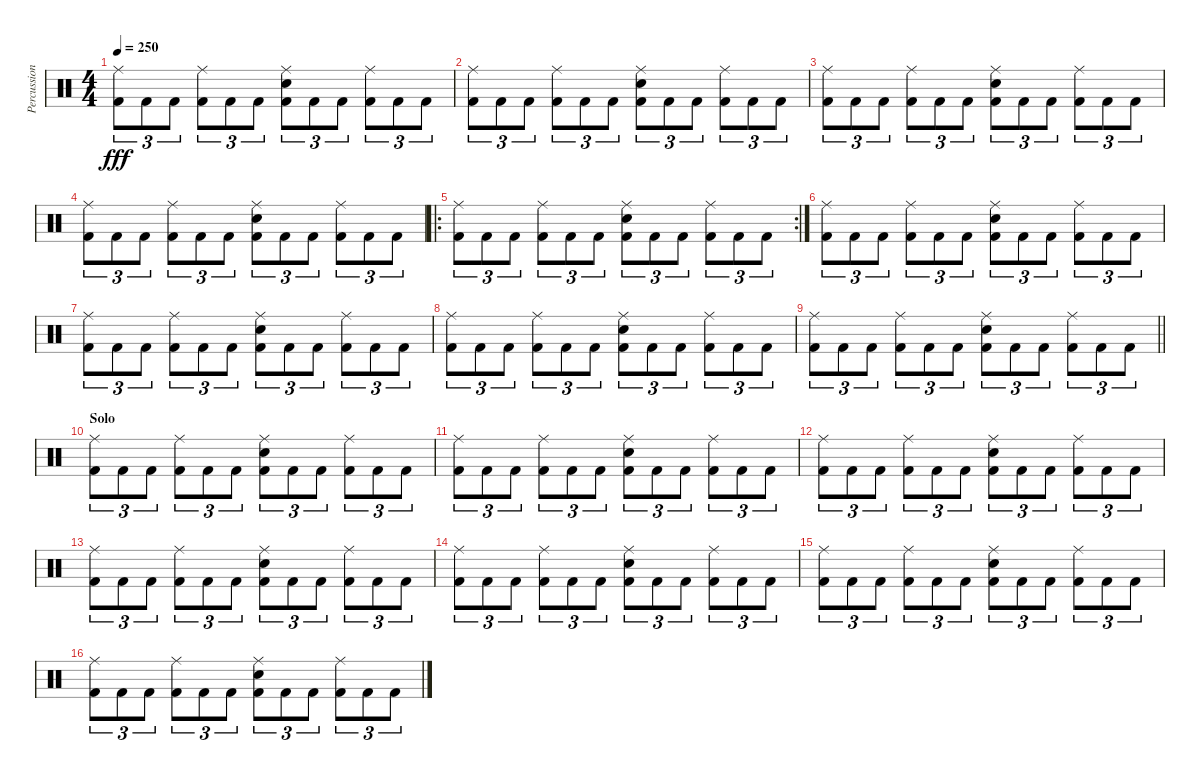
\track ("Percussion" "Percussion") {instrument percussion}
\staff {score}
\articulation defaults
\ts (4 4)
\tempo 250
\clef neutral
\ks c
("Ride (middle)" "Kick (hit) 2").8{tu (3 2) dy fff} "Kick (hit) 2".8{tu (3 2)} "Kick (hit) 2".8{tu (3 2)} ("Ride (middle)" "Kick (hit) 2").8{tu (3 2)} "Kick (hit) 2".8{tu (3 2)} "Kick (hit) 2".8{tu (3 2)} ("Ride (middle)" "Electric Snare (hit)" "Kick (hit) 2").8{tu (3 2)} "Kick (hit) 2".8{tu (3 2)} "Kick (hit) 2".8{tu (3 2)} ("Ride (middle)" "Kick (hit) 2").8{tu (3 2)} "Kick (hit) 2".8{tu (3 2)} "Kick (hit) 2".8{tu (3 2)} |
("Ride (middle)" "Kick (hit) 2").8{tu (3 2)} "Kick (hit) 2".8{tu (3 2)} "Kick (hit) 2".8{tu (3 2)} ("Ride (middle)" "Kick (hit) 2").8{tu (3 2)} "Kick (hit) 2".8{tu (3 2)} "Kick (hit) 2".8{tu (3 2)} ("Ride (middle)" "Electric Snare (hit)" "Kick (hit) 2").8{tu (3 2)} "Kick (hit) 2".8{tu (3 2)} "Kick (hit) 2".8{tu (3 2)} ("Ride (middle)" "Kick (hit) 2").8{tu (3 2)} "Kick (hit) 2".8{tu (3 2)} "Kick (hit) 2".8{tu (3 2)} |
("Ride (middle)" "Kick (hit) 2").8{tu (3 2)} "Kick (hit) 2".8{tu (3 2)} "Kick (hit) 2".8{tu (3 2)} ("Ride (middle)" "Kick (hit) 2").8{tu (3 2)} "Kick (hit) 2".8{tu (3 2)} "Kick (hit) 2".8{tu (3 2)} ("Ride (middle)" "Electric Snare (hit)" "Kick (hit) 2").8{tu (3 2)} "Kick (hit) 2".8{tu (3 2)} "Kick (hit) 2".8{tu (3 2)} ("Ride (middle)" "Kick (hit) 2").8{tu (3 2)} "Kick (hit) 2".8{tu (3 2)} "Kick (hit) 2".8{tu (3 2)} |
("Ride (middle)" "Kick (hit) 2").8{tu (3 2)} "Kick (hit) 2".8{tu (3 2)} "Kick (hit) 2".8{tu (3 2)} ("Ride (middle)" "Kick (hit) 2").8{tu (3 2)} "Kick (hit) 2".8{tu (3 2)} "Kick (hit) 2".8{tu (3 2)} ("Ride (middle)" "Electric Snare (hit)" "Kick (hit) 2").8{tu (3 2)} "Kick (hit) 2".8{tu (3 2)} "Kick (hit) 2".8{tu (3 2)} ("Ride (middle)" "Kick (hit) 2").8{tu (3 2)} "Kick (hit) 2".8{tu (3 2)} "Kick (hit) 2".8{tu (3 2)} |
\ro
\rc 2
("Ride (middle)" "Kick (hit) 2").8{tu (3 2)} "Kick (hit) 2".8{tu (3 2)} "Kick (hit) 2".8{tu (3 2)} ("Ride (middle)" "Kick (hit) 2").8{tu (3 2)} "Kick (hit) 2".8{tu (3 2)} "Kick (hit) 2".8{tu (3 2)} ("Ride (middle)" "Electric Snare (hit)" "Kick (hit) 2").8{tu (3 2)} "Kick (hit) 2".8{tu (3 2)} "Kick (hit) 2".8{tu (3 2)} ("Ride (middle)" "Kick (hit) 2").8{tu (3 2)} "Kick (hit) 2".8{tu (3 2)} "Kick (hit) 2".8{tu (3 2)} |
("Ride (middle)" "Kick (hit) 2").8{tu (3 2)} "Kick (hit) 2".8{tu (3 2)} "Kick (hit) 2".8{tu (3 2)} ("Ride (middle)" "Kick (hit) 2").8{tu (3 2)} "Kick (hit) 2".8{tu (3 2)} "Kick (hit) 2".8{tu (3 2)} ("Ride (middle)" "Electric Snare (hit)" "Kick (hit) 2").8{tu (3 2)} "Kick (hit) 2".8{tu (3 2)} "Kick (hit) 2".8{tu (3 2)} ("Ride (middle)" "Kick (hit) 2").8{tu (3 2)} "Kick (hit) 2".8{tu (3 2)} "Kick (hit) 2".8{tu (3 2)} |
("Ride (middle)" "Kick (hit) 2").8{tu (3 2)} "Kick (hit) 2".8{tu (3 2)} "Kick (hit) 2".8{tu (3 2)} ("Ride (middle)" "Kick (hit) 2").8{tu (3 2)} "Kick (hit) 2".8{tu (3 2)} "Kick (hit) 2".8{tu (3 2)} ("Ride (middle)" "Electric Snare (hit)" "Kick (hit) 2").8{tu (3 2)} "Kick (hit) 2".8{tu (3 2)} "Kick (hit) 2".8{tu (3 2)} ("Ride (middle)" "Kick (hit) 2").8{tu (3 2)} "Kick (hit) 2".8{tu (3 2)} "Kick (hit) 2".8{tu (3 2)} |
("Ride (middle)" "Kick (hit) 2").8{tu (3 2)} "Kick (hit) 2".8{tu (3 2)} "Kick (hit) 2".8{tu (3 2)} ("Ride (middle)" "Kick (hit) 2").8{tu (3 2)} "Kick (hit) 2".8{tu (3 2)} "Kick (hit) 2".8{tu (3 2)} ("Ride (middle)" "Electric Snare (hit)" "Kick (hit) 2").8{tu (3 2)} "Kick (hit) 2".8{tu (3 2)} "Kick (hit) 2".8{tu (3 2)} ("Ride (middle)" "Kick (hit) 2").8{tu (3 2)} "Kick (hit) 2".8{tu (3 2)} "Kick (hit) 2".8{tu (3 2)} |
\barLineRight lightlight
("Ride (middle)" "Kick (hit) 2").8{tu (3 2)} "Kick (hit) 2".8{tu (3 2)} "Kick (hit) 2".8{tu (3 2)} ("Ride (middle)" "Kick (hit) 2").8{tu (3 2)} "Kick (hit) 2".8{tu (3 2)} "Kick (hit) 2".8{tu (3 2)} ("Ride (middle)" "Electric Snare (hit)" "Kick (hit) 2").8{tu (3 2)} "Kick (hit) 2".8{tu (3 2)} "Kick (hit) 2".8{tu (3 2)} ("Ride (middle)" "Kick (hit) 2").8{tu (3 2)} "Kick (hit) 2".8{tu (3 2)} "Kick (hit) 2".8{tu (3 2)} |
\section ("" "Solo")
("Ride (middle)" "Kick (hit) 2").8{tu (3 2)} "Kick (hit) 2".8{tu (3 2)} "Kick (hit) 2".8{tu (3 2)} ("Ride (middle)" "Kick (hit) 2").8{tu (3 2)} "Kick (hit) 2".8{tu (3 2)} "Kick (hit) 2".8{tu (3 2)} ("Ride (middle)" "Electric Snare (hit)" "Kick (hit) 2").8{tu (3 2)} "Kick (hit) 2".8{tu (3 2)} "Kick (hit) 2".8{tu (3 2)} ("Ride (middle)" "Kick (hit) 2").8{tu (3 2)} "Kick (hit) 2".8{tu (3 2)} "Kick (hit) 2".8{tu (3 2)} |
("Ride (middle)" "Kick (hit) 2").8{tu (3 2)} "Kick (hit) 2".8{tu (3 2)} "Kick (hit) 2".8{tu (3 2)} ("Ride (middle)" "Kick (hit) 2").8{tu (3 2)} "Kick (hit) 2".8{tu (3 2)} "Kick (hit) 2".8{tu (3 2)} ("Ride (middle)" "Electric Snare (hit)" "Kick (hit) 2").8{tu (3 2)} "Kick (hit) 2".8{tu (3 2)} "Kick (hit) 2".8{tu (3 2)} ("Ride (middle)" "Kick (hit) 2").8{tu (3 2)} "Kick (hit) 2".8{tu (3 2)} "Kick (hit) 2".8{tu (3 2)} |
("Ride (middle)" "Kick (hit) 2").8{tu (3 2)} "Kick (hit) 2".8{tu (3 2)} "Kick (hit) 2".8{tu (3 2)} ("Ride (middle)" "Kick (hit) 2").8{tu (3 2)} "Kick (hit) 2".8{tu (3 2)} "Kick (hit) 2".8{tu (3 2)} ("Ride (middle)" "Electric Snare (hit)" "Kick (hit) 2").8{tu (3 2)} "Kick (hit) 2".8{tu (3 2)} "Kick (hit) 2".8{tu (3 2)} ("Ride (middle)" "Kick (hit) 2").8{tu (3 2)} "Kick (hit) 2".8{tu (3 2)} "Kick (hit) 2".8{tu (3 2)} |
("Ride (middle)" "Kick (hit) 2").8{tu (3 2)} "Kick (hit) 2".8{tu (3 2)} "Kick (hit) 2".8{tu (3 2)} ("Ride (middle)" "Kick (hit) 2").8{tu (3 2)} "Kick (hit) 2".8{tu (3 2)} "Kick (hit) 2".8{tu (3 2)} ("Ride (middle)" "Electric Snare (hit)" "Kick (hit) 2").8{tu (3 2)} "Kick (hit) 2".8{tu (3 2)} "Kick (hit) 2".8{tu (3 2)} ("Ride (middle)" "Kick (hit) 2").8{tu (3 2)} "Kick (hit) 2".8{tu (3 2)} "Kick (hit) 2".8{tu (3 2)} |
("Ride (middle)" "Kick (hit) 2").8{tu (3 2)} "Kick (hit) 2".8{tu (3 2)} "Kick (hit) 2".8{tu (3 2)} ("Ride (middle)" "Kick (hit) 2").8{tu (3 2)} "Kick (hit) 2".8{tu (3 2)} "Kick (hit) 2".8{tu (3 2)} ("Ride (middle)" "Electric Snare (hit)" "Kick (hit) 2").8{tu (3 2)} "Kick (hit) 2".8{tu (3 2)} "Kick (hit) 2".8{tu (3 2)} ("Ride (middle)" "Kick (hit) 2").8{tu (3 2)} "Kick (hit) 2".8{tu (3 2)} "Kick (hit) 2".8{tu (3 2)} |
("Ride (middle)" "Kick (hit) 2").8{tu (3 2)} "Kick (hit) 2".8{tu (3 2)} "Kick (hit) 2".8{tu (3 2)} ("Ride (middle)" "Kick (hit) 2").8{tu (3 2)} "Kick (hit) 2".8{tu (3 2)} "Kick (hit) 2".8{tu (3 2)} ("Ride (middle)" "Electric Snare (hit)" "Kick (hit) 2").8{tu (3 2)} "Kick (hit) 2".8{tu (3 2)} "Kick (hit) 2".8{tu (3 2)} ("Ride (middle)" "Kick (hit) 2").8{tu (3 2)} "Kick (hit) 2".8{tu (3 2)} "Kick (hit) 2".8{tu (3 2)} |
("Ride (middle)" "Kick (hit) 2").8{tu (3 2)} "Kick (hit) 2".8{tu (3 2)} "Kick (hit) 2".8{tu (3 2)} ("Ride (middle)" "Kick (hit) 2").8{tu (3 2)} "Kick (hit) 2".8{tu (3 2)} "Kick (hit) 2".8{tu (3 2)} ("Ride (middle)" "Electric Snare (hit)" "Kick (hit) 2").8{tu (3 2)} "Kick (hit) 2".8{tu (3 2)} "Kick (hit) 2".8{tu (3 2)} ("Ride (middle)" "Kick (hit) 2").8{tu (3 2)} "Kick (hit) 2".8{tu (3 2)} "Kick (hit) 2".8{tu (3 2)}
